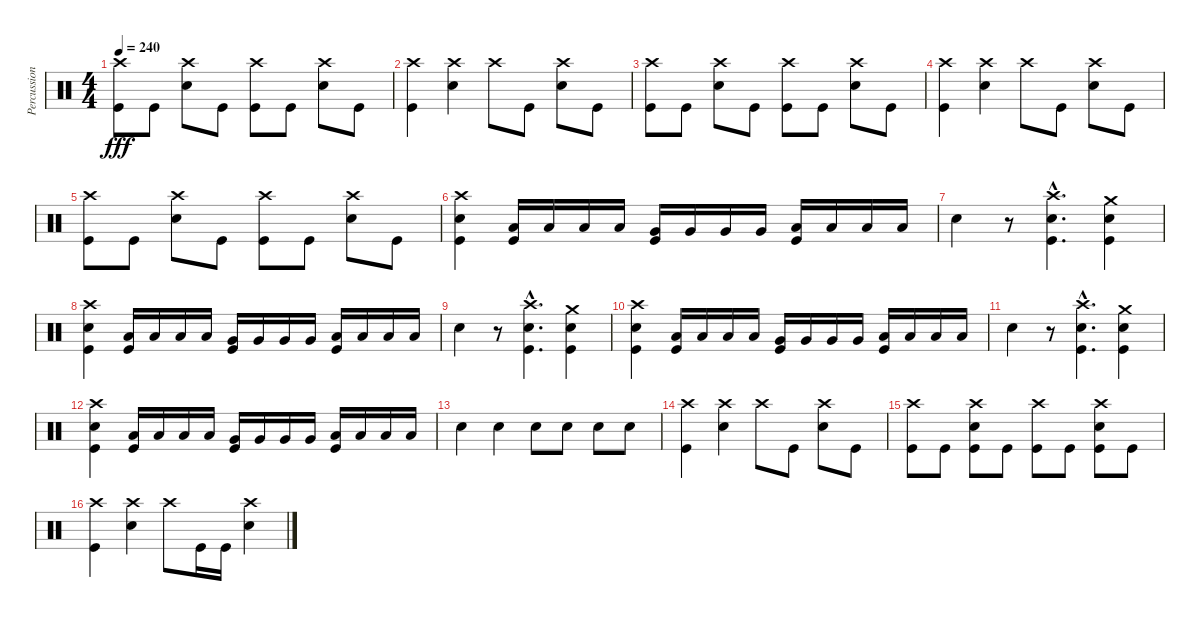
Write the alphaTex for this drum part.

\track ("Percussion" "Percussion") {instrument percussion}
\staff {score}
\articulation defaults
\ts (4 4)
\tempo 240
\clef neutral
\ks c
("Crash high (hit)" "Kick (hit)").8{dy fff} "Kick (hit)".8 ("Crash high (hit)" "Snare (hit) 2").8 "Kick (hit)".8 ("Crash high (hit)" "Kick (hit)").8 "Kick (hit)".8 ("Crash high (hit)" "Snare (hit) 2").8 "Kick (hit)".8 |
("Crash high (hit)" "Kick (hit)").4 ("Crash high (hit)" "Snare (hit) 2").4 "Crash high (hit)".8 "Kick (hit)".8 ("Crash high (hit)" "Snare (hit) 2").8 "Kick (hit)".8 |
("Crash high (hit)" "Kick (hit)").8 "Kick (hit)".8 ("Crash high (hit)" "Snare (hit) 2").8 "Kick (hit)".8 ("Crash high (hit)" "Kick (hit)").8 "Kick (hit)".8 ("Crash high (hit)" "Snare (hit) 2").8 "Kick (hit)".8 |
("Crash high (hit)" "Kick (hit)").4 ("Crash high (hit)" "Snare (hit) 2").4 "Crash high (hit)".8 "Kick (hit)".8 ("Crash high (hit)" "Snare (hit) 2").8 "Kick (hit)".8 |
("Crash high (hit)" "Kick (hit)").8 "Kick (hit)".8 ("Crash high (hit)" "Snare (hit) 2").8 "Kick (hit)".8 ("Crash high (hit)" "Kick (hit)").8 "Kick (hit)".8 ("Crash high (hit)" "Snare (hit) 2").8 "Kick (hit)".8 |
("Crash high (hit)" "Snare (hit) 2" "Kick (hit)").4 ("Low Tom (hit)" "Kick (hit)").16 "Low Tom (hit)".16 "Low Tom (hit)".16 "Low Tom (hit)".16 ("Very Low Tom (hit)" "Kick (hit)").16 "Very Low Tom (hit)".16 "Very Low Tom (hit)".16 "Very Low Tom (hit)".16 ("Low Floor Tom (hit)" "Kick (hit)").16 "Low Floor Tom (hit)".16 "Low Floor Tom (hit)".16 "Low Floor Tom (hit)".16 |
"Snare (hit) 2".4 r.8 ("Crash high (hit)"{hac} "Snare (hit) 2"{hac} "Kick (hit)"{hac}).4{d} ("Crash medium (hit)" "Snare (hit) 2" "Kick (hit)").4 |
("Crash high (hit)" "Snare (hit) 2" "Kick (hit)").4 ("Low Tom (hit)" "Kick (hit)").16 "Low Tom (hit)".16 "Low Tom (hit)".16 "Low Tom (hit)".16 ("Very Low Tom (hit)" "Kick (hit)").16 "Very Low Tom (hit)".16 "Very Low Tom (hit)".16 "Very Low Tom (hit)".16 ("Low Floor Tom (hit)" "Kick (hit)").16 "Low Floor Tom (hit)".16 "Low Floor Tom (hit)".16 "Low Floor Tom (hit)".16 |
"Snare (hit) 2".4 r.8 ("Crash high (hit)"{hac} "Snare (hit) 2"{hac} "Kick (hit)"{hac}).4{d} ("Crash medium (hit)" "Snare (hit) 2" "Kick (hit)").4 |
("Crash high (hit)" "Snare (hit) 2" "Kick (hit)").4 ("Low Tom (hit)" "Kick (hit)").16 "Low Tom (hit)".16 "Low Tom (hit)".16 "Low Tom (hit)".16 ("Very Low Tom (hit)" "Kick (hit)").16 "Very Low Tom (hit)".16 "Very Low Tom (hit)".16 "Very Low Tom (hit)".16 ("Low Floor Tom (hit)" "Kick (hit)").16 "Low Floor Tom (hit)".16 "Low Floor Tom (hit)".16 "Low Floor Tom (hit)".16 |
"Snare (hit) 2".4 r.8 ("Crash high (hit)"{hac} "Snare (hit) 2"{hac} "Kick (hit)"{hac}).4{d} ("Crash medium (hit)" "Snare (hit) 2" "Kick (hit)").4 |
("Crash high (hit)" "Snare (hit) 2" "Kick (hit)").4 ("Low Tom (hit)" "Kick (hit)").16 "Low Tom (hit)".16 "Low Tom (hit)".16 "Low Tom (hit)".16 ("Very Low Tom (hit)" "Kick (hit)").16 "Very Low Tom (hit)".16 "Very Low Tom (hit)".16 "Very Low Tom (hit)".16 ("Low Floor Tom (hit)" "Kick (hit)").16 "Low Floor Tom (hit)".16 "Low Floor Tom (hit)".16 "Low Floor Tom (hit)".16 |
"Snare (hit) 2".4 "Snare (hit) 2".4 "Snare (hit) 2".8 "Snare (hit) 2".8 "Snare (hit) 2".8 "Snare (hit) 2".8 |
("Crash high (hit)" "Kick (hit)").4 ("Crash high (hit)" "Snare (hit) 2").4 "Crash high (hit)".8 "Kick (hit)".8 ("Crash high (hit)" "Snare (hit) 2").8 "Kick (hit)".8 |
("Crash high (hit)" "Kick (hit)").8 "Kick (hit)".8 ("Crash high (hit)" "Snare (hit) 2" "Kick (hit)").8 "Kick (hit)".8 ("Crash high (hit)" "Kick (hit)").8 "Kick (hit)".8 ("Crash high (hit)" "Snare (hit) 2" "Kick (hit)").8 "Kick (hit)".8 |
("Crash high (hit)" "Kick (hit)").4 ("Crash high (hit)" "Snare (hit) 2").4 "Crash high (hit)".8 "Kick (hit)".16 "Kick (hit)".16 ("Crash high (hit)" "Snare (hit) 2").4
